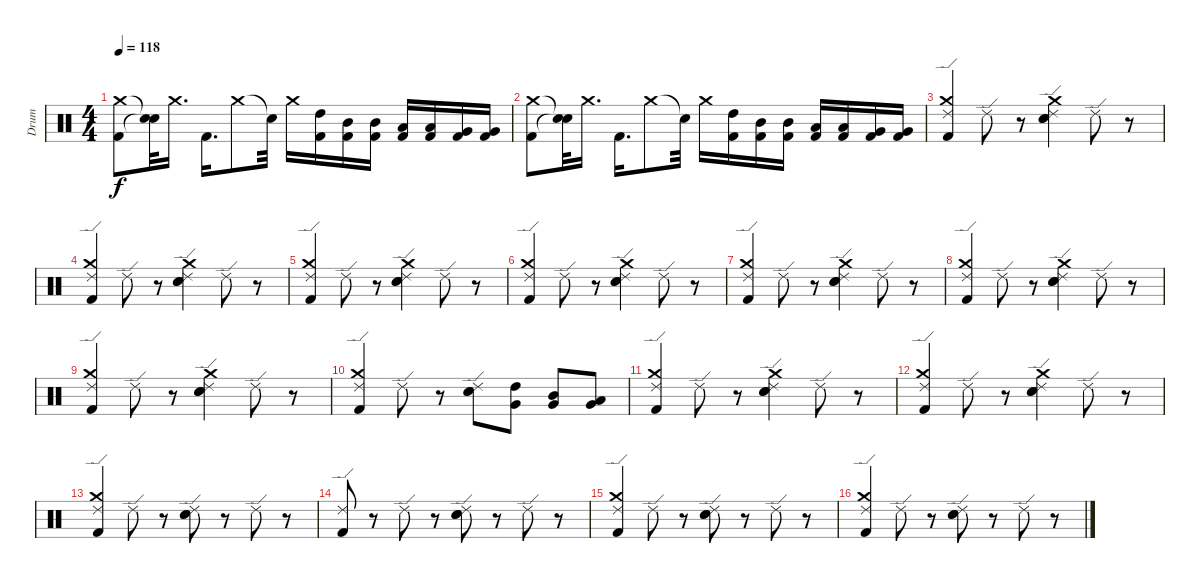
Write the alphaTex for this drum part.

\track (" Drum" " Drum") {instrument percussion}
\staff {score}
\articulation defaults
\ts (4 4)
\tempo 118
\clef neutral
\ks c
("Kick (hit) 2" "Crash medium (hit)").8{dy f volume 6} ("Snare (hit)"{t} "Snare (hit)"{t}).32 "Crash medium (hit)".16{d} "Kick (hit) 2".16{d} "Crash medium (hit)".8 "Snare (hit)"{t}.32 "Crash medium (hit)".16{volume 6} ("High Tom (hit)" "Kick (hit) 2").16 ("Mid Tom (hit)" "Kick (hit) 2").16 ("Mid Tom (hit)" "Kick (hit) 2").16 ("Low Tom (hit)" "Kick (hit) 2").16 ("Low Tom (hit)" "Kick (hit) 2").16{volume 6} ("Very Low Tom (hit)" "Kick (hit) 2").16 ("Very Low Tom (hit)" "Kick (hit) 2").16 |
("Kick (hit) 2" "Crash medium (hit)").8 ("Snare (hit)"{t} "Snare (hit)"{t}).32 "Crash medium (hit)".16{d volume 6} "Kick (hit) 2".16{d} "Crash medium (hit)".8 "Snare (hit)"{t}.32 "Crash medium (hit)".16 ("High Tom (hit)" "Kick (hit) 2").16{volume 5} ("Mid Tom (hit)" "Kick (hit) 2").16 ("Mid Tom (hit)" "Kick (hit) 2").16 ("Low Tom (hit)" "Kick (hit) 2").16 ("Low Tom (hit)" "Kick (hit) 2").16 ("Very Low Tom (hit)" "Kick (hit) 2").16 ("Very Low Tom (hit)" "Kick (hit) 2").16{volume 5} |
("Crash medium (hit)" "Kick (hit) 2" "Ride (edge) 2").4 "Ride (edge) 2".8 r.8 ("Crash medium (hit)" "Electric Snare (hit)" "Snare (hit) 2" "Ride (edge) 2").4{volume 5} "Ride (edge) 2".8{volume 5} r.8 |
("Crash medium (hit)" "Kick (hit) 2" "Ride (edge) 2").4 "Ride (edge) 2".8{volume 5} r.8 ("Crash medium (hit)" "Electric Snare (hit)" "Snare (hit) 2" "Ride (edge) 2").4{volume 5} "Ride (edge) 2".8 r.8 |
("Crash medium (hit)" "Kick (hit) 2" "Ride (edge) 2").4{volume 5} "Ride (edge) 2".8{volume 4} r.8 ("Crash medium (hit)" "Electric Snare (hit)" "Snare (hit) 2" "Ride (edge) 2").4 "Ride (edge) 2".8{volume 4} r.8 |
("Crash medium (hit)" "Kick (hit) 2" "Ride (edge) 2").4{volume 4} "Ride (edge) 2".8 r.8 ("Crash medium (hit)" "Electric Snare (hit)" "Snare (hit) 2" "Ride (edge) 2").4{volume 4} "Ride (edge) 2".8{volume 4} r.8 |
("Crash medium (hit)" "Kick (hit) 2" "Ride (edge) 2").4 "Ride (edge) 2".8{volume 4} r.8 ("Crash medium (hit)" "Electric Snare (hit)" "Snare (hit) 2" "Ride (edge) 2").4 "Ride (edge) 2".8{volume 4} r.8 |
("Crash medium (hit)" "Kick (hit) 2" "Ride (edge) 2").4{volume 4} "Ride (edge) 2".8 r.8 ("Crash medium (hit)" "Electric Snare (hit)" "Snare (hit) 2" "Ride (edge) 2").4{volume 4} "Ride (edge) 2".8{volume 3} r.8 |
("Crash medium (hit)" "Kick (hit) 2" "Ride (edge) 2").4 "Ride (edge) 2".8{volume 3} r.8 ("Crash medium (hit)" "Electric Snare (hit)" "Snare (hit) 2" "Ride (edge) 2").4{volume 3} "Ride (edge) 2".8 r.8 |
("Crash medium (hit)" "Kick (hit) 2" "Ride (edge) 2").4{volume 3} "Ride (edge) 2".8{volume 3} r.8 ("Electric Snare (hit)" "Snare (hit) 2" "Ride (edge) 2").8 ("Very Low Tom (hit)" "High Tom (hit)").8{volume 3} ("Mid Tom (hit)" "Very Low Tom (hit)").8 ("Low Tom (hit)" "Very Low Tom (hit)").8 |
("Crash medium (hit)" "Kick (hit) 2" "Ride (edge) 2").4{volume 3} "Ride (edge) 2".8 r.8 ("Crash medium (hit)" "Electric Snare (hit)" "Snare (hit) 2" "Ride (edge) 2").4{volume 2} "Ride (edge) 2".8{volume 2} r.8 |
("Crash medium (hit)" "Kick (hit) 2" "Ride (edge) 2").4 "Ride (edge) 2".8{volume 2} r.8 ("Crash medium (hit)" "Electric Snare (hit)" "Snare (hit) 2" "Ride (edge) 2").4{volume 2} "Ride (edge) 2".8 r.8 |
("Crash medium (hit)" "Kick (hit) 2" "Ride (edge) 2").4{volume 2} "Ride (edge) 2".8 r.8 ("Electric Snare (hit)" "Snare (hit) 2" "Ride (edge) 2").8{volume 2} r.8 "Ride (edge) 2".8{volume 2} r.8 |
("Kick (hit) 2" "Ride (edge) 2").8 r.8 "Ride (edge) 2".8{volume 2} r.8 ("Electric Snare (hit)" "Snare (hit) 2" "Ride (edge) 2").8{volume 2} r.8 "Ride (edge) 2".8 r.8 |
("Crash medium (hit)" "Kick (hit) 2" "Ride (edge) 2").4{volume 1} "Ride (edge) 2".8{volume 1} r.8 ("Electric Snare (hit)" "Snare (hit) 2" "Ride (edge) 2").8 r.8 "Ride (edge) 2".8{volume 1} r.8 |
("Crash medium (hit)" "Kick (hit) 2" "Ride (edge) 2").4{volume 1} "Ride (edge) 2".8 r.8 ("Electric Snare (hit)" "Snare (hit) 2" "Ride (edge) 2").8{volume 1} r.8 "Ride (edge) 2".8{volume 1} r.8
